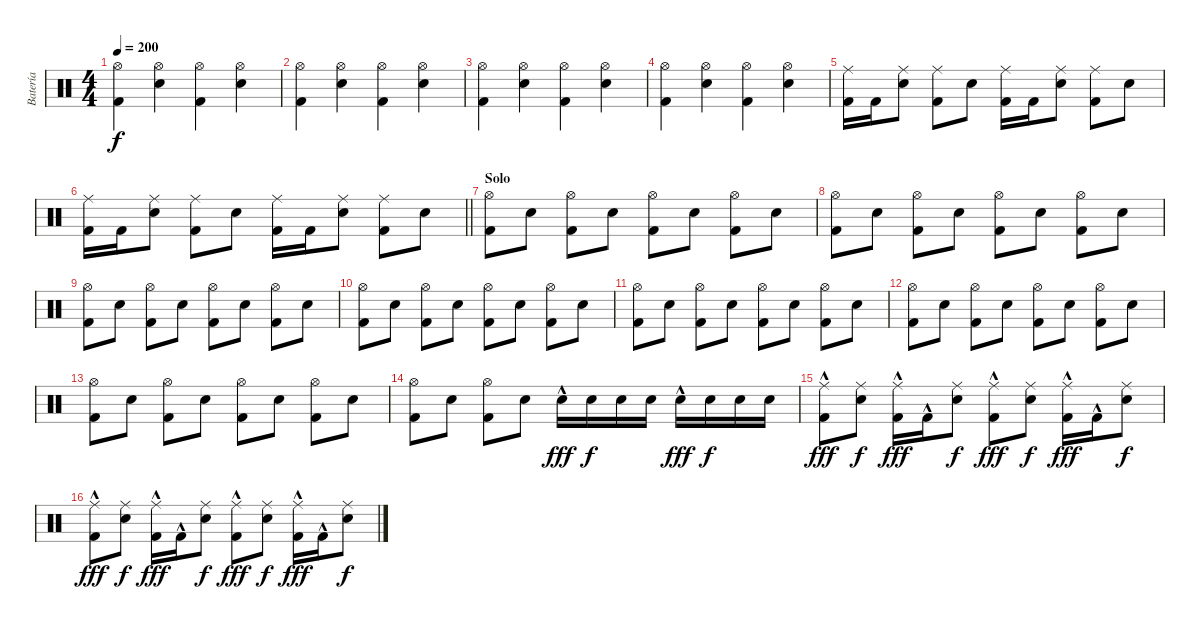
\track ("Batería" "Batería") {instrument percussion bank 6}
\staff {score}
\articulation defaults
\ts (4 4)
\tempo 200
\clef neutral
\ks c
("Hi-Hat (open)" "Kick (hit) 2").4{dy f} ("Snare (hit) 2" "Hi-Hat (open)").4 ("Hi-Hat (open)" "Kick (hit) 2").4 ("Snare (hit) 2" "Hi-Hat (open)").4 |
("Hi-Hat (open)" "Kick (hit) 2").4 ("Snare (hit) 2" "Hi-Hat (open)").4 ("Hi-Hat (open)" "Kick (hit) 2").4 ("Snare (hit) 2" "Hi-Hat (open)").4 |
("Hi-Hat (open)" "Kick (hit) 2").4 ("Snare (hit) 2" "Hi-Hat (open)").4 ("Hi-Hat (open)" "Kick (hit) 2").4 ("Snare (hit) 2" "Hi-Hat (open)").4 |
("Hi-Hat (open)" "Kick (hit) 2").4 ("Snare (hit) 2" "Hi-Hat (open)").4 ("Hi-Hat (open)" "Kick (hit) 2").4 ("Snare (hit) 2" "Hi-Hat (open)").4 |
("Ride (middle)" "Kick (hit) 2").16 "Kick (hit) 2".16 ("Snare (hit) 2" "Ride (middle)").8 ("Ride (middle)" "Kick (hit) 2").8 "Snare (hit) 2".8 ("Ride (middle)" "Kick (hit) 2").16 "Kick (hit) 2".16 ("Snare (hit) 2" "Ride (middle)").8 ("Ride (middle)" "Kick (hit) 2").8 "Snare (hit) 2".8 |
\barLineRight lightlight
("Ride (middle)" "Kick (hit) 2").16 "Kick (hit) 2".16 ("Snare (hit) 2" "Ride (middle)").8 ("Ride (middle)" "Kick (hit) 2").8 "Snare (hit) 2".8 ("Ride (middle)" "Kick (hit) 2").16 "Kick (hit) 2".16 ("Snare (hit) 2" "Ride (middle)").8 ("Ride (middle)" "Kick (hit) 2").8 "Snare (hit) 2".8 |
\section ("" "Solo")
("Hi-Hat (open)" "Kick (hit) 2").8 "Snare (hit) 2".8 ("Hi-Hat (open)" "Kick (hit) 2").8 "Snare (hit) 2".8 ("Hi-Hat (open)" "Kick (hit) 2").8 "Snare (hit) 2".8 ("Hi-Hat (open)" "Kick (hit) 2").8 "Snare (hit) 2".8 |
("Hi-Hat (open)" "Kick (hit) 2").8 "Snare (hit) 2".8 ("Hi-Hat (open)" "Kick (hit) 2").8 "Snare (hit) 2".8 ("Hi-Hat (open)" "Kick (hit) 2").8 "Snare (hit) 2".8 ("Hi-Hat (open)" "Kick (hit) 2").8 "Snare (hit) 2".8 |
("Hi-Hat (open)" "Kick (hit) 2").8 "Snare (hit) 2".8 ("Hi-Hat (open)" "Kick (hit) 2").8 "Snare (hit) 2".8 ("Hi-Hat (open)" "Kick (hit) 2").8 "Snare (hit) 2".8 ("Hi-Hat (open)" "Kick (hit) 2").8 "Snare (hit) 2".8 |
("Hi-Hat (open)" "Kick (hit) 2").8 "Snare (hit) 2".8 ("Hi-Hat (open)" "Kick (hit) 2").8 "Snare (hit) 2".8 ("Hi-Hat (open)" "Kick (hit) 2").8 "Snare (hit) 2".8 ("Hi-Hat (open)" "Kick (hit) 2").8 "Snare (hit) 2".8 |
("Hi-Hat (open)" "Kick (hit) 2").8 "Snare (hit) 2".8 ("Hi-Hat (open)" "Kick (hit) 2").8 "Snare (hit) 2".8 ("Hi-Hat (open)" "Kick (hit) 2").8 "Snare (hit) 2".8 ("Hi-Hat (open)" "Kick (hit) 2").8 "Snare (hit) 2".8 |
("Hi-Hat (open)" "Kick (hit) 2").8 "Snare (hit) 2".8 ("Hi-Hat (open)" "Kick (hit) 2").8 "Snare (hit) 2".8 ("Hi-Hat (open)" "Kick (hit) 2").8 "Snare (hit) 2".8 ("Hi-Hat (open)" "Kick (hit) 2").8 "Snare (hit) 2".8 |
("Hi-Hat (open)" "Kick (hit) 2").8 "Snare (hit) 2".8 ("Hi-Hat (open)" "Kick (hit) 2").8 "Snare (hit) 2".8 ("Hi-Hat (open)" "Kick (hit) 2").8 "Snare (hit) 2".8 ("Hi-Hat (open)" "Kick (hit) 2").8 "Snare (hit) 2".8 |
("Hi-Hat (open)" "Kick (hit) 2").8 "Snare (hit) 2".8 ("Hi-Hat (open)" "Kick (hit) 2").8 "Snare (hit) 2".8 "Snare (hit) 2"{hac}.16{dy fff} "Snare (hit) 2".16{dy f} "Snare (hit) 2".16 "Snare (hit) 2".16 "Snare (hit) 2"{hac}.16{dy fff} "Snare (hit) 2".16{dy f} "Snare (hit) 2".16 "Snare (hit) 2".16 |
("Ride (middle)" "Kick (hit) 2"{hac}).8{dy fff} ("Snare (hit) 2" "Ride (middle)").8{dy f} ("Ride (middle)" "Kick (hit) 2"{hac}).16{dy fff} "Kick (hit) 2"{hac}.16 ("Snare (hit) 2" "Ride (middle)").8{dy f} ("Ride (middle)" "Kick (hit) 2"{hac}).8{dy fff} ("Snare (hit) 2" "Ride (middle)").8{dy f} ("Ride (middle)" "Kick (hit) 2"{hac}).16{dy fff} "Kick (hit) 2"{hac}.16 ("Snare (hit) 2" "Ride (middle)").8{dy f} |
("Ride (middle)" "Kick (hit) 2"{hac}).8{dy fff} ("Snare (hit) 2" "Ride (middle)").8{dy f} ("Ride (middle)" "Kick (hit) 2"{hac}).16{dy fff} "Kick (hit) 2"{hac}.16 ("Snare (hit) 2" "Ride (middle)").8{dy f} ("Ride (middle)" "Kick (hit) 2"{hac}).8{dy fff} ("Snare (hit) 2" "Ride (middle)").8{dy f} ("Ride (middle)" "Kick (hit) 2"{hac}).16{dy fff} "Kick (hit) 2"{hac}.16 ("Snare (hit) 2" "Ride (middle)").8{dy f}
